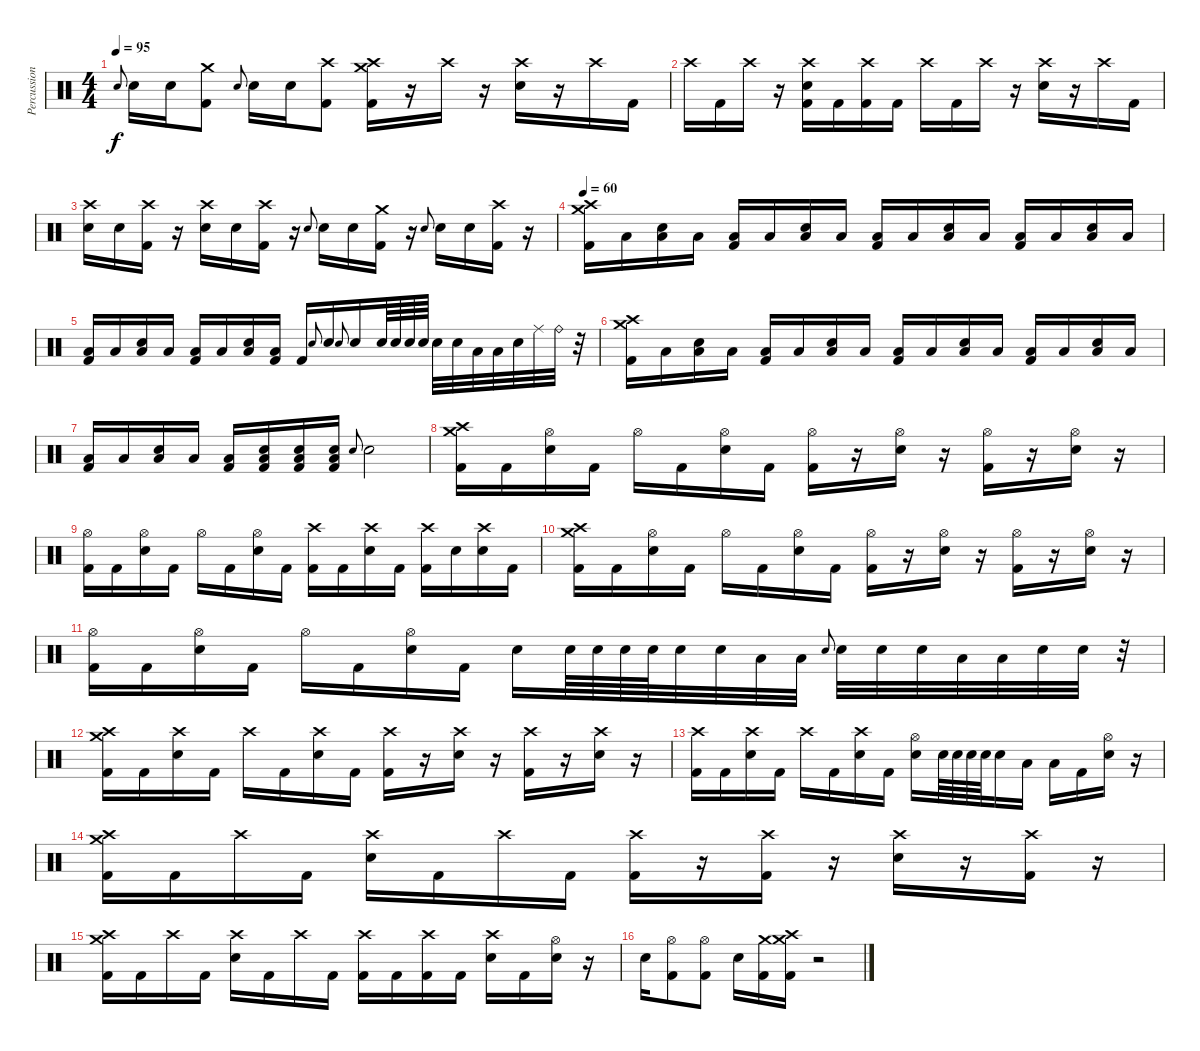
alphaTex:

\track ("Percussion" "Percussion") {instrument percussion}
\staff {score}
\articulation defaults
\ts (4 4)
\tempo 95
\clef neutral
\ks c "Electric Snare (hit)".8{gr onbeat dy f} "Electric Snare (hit)".16{volume 13} "Electric Snare (hit)".16
("Crash medium (hit)" "Kick (hit) 2").8 "Electric Snare (hit)".8{gr onbeat} "Electric Snare (hit)".16 "Electric Snare (hit)".16 ("Crash high (hit)" "Kick (hit) 2").8 ("Crash medium (hit)" "Crash high (hit)" "Kick (hit) 2").16 r.16 "Crash high (hit)".16 r.16 ("Crash high (hit)" "Electric Snare (hit)").16 r.16 "Crash high (hit)".16 "Kick (hit) 2".16 |
"Crash high (hit)".16 "Kick (hit) 2".16 "Crash high (hit)".16 r.16 ("Crash high (hit)" "Electric Snare (hit)" "Kick (hit) 2").16 "Kick (hit) 2".16 ("Crash high (hit)" "Kick (hit) 2").16 "Kick (hit) 2".16 "Crash high (hit)".16 "Kick (hit) 2".16 "Crash high (hit)".16 r.16 ("Crash high (hit)" "Electric Snare (hit)").16 r.16 "Crash high (hit)".16 "Kick (hit) 2".16 |
("Crash high (hit)" "Electric Snare (hit)").16 "Electric Snare (hit)".16 ("Crash high (hit)" "Kick (hit) 2").16 r.16 ("Crash high (hit)" "Electric Snare (hit)").16 "Electric Snare (hit)".16 ("Crash high (hit)" "Kick (hit) 2").16 r.16 "Electric Snare (hit)".8{gr onbeat} "Electric Snare (hit)".16 "Electric Snare (hit)".16 ("Crash medium (hit)" "Kick (hit) 2").16 r.16 "Electric Snare (hit)".8{gr onbeat} "Electric Snare (hit)".16 "Electric Snare (hit)".16 ("Crash high (hit)" "Kick (hit) 2").16 r.16 |
\tempo 60
("Crash medium (hit)" "Crash high (hit)" "Kick (hit) 2").16 "Low Floor Tom (hit)".16 ("Low Floor Tom (hit)" "Electric Snare (hit)").16 "Low Floor Tom (hit)".16 ("Low Floor Tom (hit)" "Kick (hit) 2").16 "Low Floor Tom (hit)".16 ("Low Floor Tom (hit)" "Electric Snare (hit)").16 "Low Floor Tom (hit)".16 ("Low Floor Tom (hit)" "Kick (hit) 2").16 "Low Floor Tom (hit)".16 ("Low Floor Tom (hit)" "Electric Snare (hit)").16 "Low Floor Tom (hit)".16 ("Low Floor Tom (hit)" "Kick (hit) 2").16 "Low Floor Tom (hit)".16 ("Low Floor Tom (hit)" "Electric Snare (hit)").16 "Low Floor Tom (hit)".16 |
("Low Floor Tom (hit)" "Kick (hit) 2").16 "Low Floor Tom (hit)".16 ("Low Floor Tom (hit)" "Electric Snare (hit)").16 "Low Floor Tom (hit)".16 ("Low Floor Tom (hit)" "Kick (hit) 2").16 "Low Floor Tom (hit)".16 ("Low Floor Tom (hit)" "Electric Snare (hit)").16 ("Low Floor Tom (hit)" "Kick (hit) 2").16 "Kick (hit) 2".16 "Electric Snare (hit)".8{gr onbeat} "Electric Snare (hit)".16 "Electric Snare (hit)".8{gr onbeat} "Electric Snare (hit)".16 "Electric Snare (hit)".64 "Electric Snare (hit)".64 "Electric Snare (hit)".64 "Electric Snare (hit)".64 "Electric Snare (hit)".32 "Electric Snare (hit)".32 "Low Tom (hit)".32 "Low Tom (hit)".32 "Electric Snare (hit)".32 "Ride (middle)".32 "Ride (bell)".32 r.32 |
("Crash medium (hit)" "Crash high (hit)" "Kick (hit) 2").16 "Low Floor Tom (hit)".16 ("Low Floor Tom (hit)" "Electric Snare (hit)").16 "Low Floor Tom (hit)".16 ("Low Floor Tom (hit)" "Kick (hit) 2").16 "Low Floor Tom (hit)".16 ("Low Floor Tom (hit)" "Electric Snare (hit)").16 "Low Floor Tom (hit)".16 ("Low Floor Tom (hit)" "Kick (hit) 2").16 "Low Floor Tom (hit)".16 ("Low Floor Tom (hit)" "Electric Snare (hit)").16 "Low Floor Tom (hit)".16 ("Low Floor Tom (hit)" "Kick (hit) 2").16 "Low Floor Tom (hit)".16 ("Low Floor Tom (hit)" "Electric Snare (hit)").16 "Low Floor Tom (hit)".16 |
("Low Floor Tom (hit)" "Kick (hit) 2").16 "Low Floor Tom (hit)".16 ("Low Floor Tom (hit)" "Electric Snare (hit)").16 "Low Floor Tom (hit)".16 ("Low Floor Tom (hit)" "Kick (hit) 2").16 ("Low Floor Tom (hit)" "Electric Snare (hit)" "Kick (hit) 2").16 ("Low Floor Tom (hit)" "Electric Snare (hit)" "Kick (hit) 2").16 ("Low Floor Tom (hit)" "Electric Snare (hit)" "Kick (hit) 2").16 "Electric Snare (hit)".8{gr onbeat} "Electric Snare (hit)".2 |
("Crash medium (hit)" "Crash high (hit)" "Kick (hit) 2").16 "Kick (hit) 2".16 ("Hi-Hat (open)" "Electric Snare (hit)").16 "Kick (hit) 2".16 "Hi-Hat (open)".16 "Kick (hit) 2".16 ("Hi-Hat (open)" "Electric Snare (hit)").16 "Kick (hit) 2".16 ("Hi-Hat (open)" "Kick (hit) 2").16 r.16 ("Hi-Hat (open)" "Electric Snare (hit)").16 r.16 ("Hi-Hat (open)" "Kick (hit) 2").16 r.16 ("Hi-Hat (open)" "Electric Snare (hit)").16 r.16 |
("Hi-Hat (open)" "Kick (hit) 2").16 "Kick (hit) 2".16 ("Hi-Hat (open)" "Electric Snare (hit)").16 "Kick (hit) 2".16 "Hi-Hat (open)".16 "Kick (hit) 2".16 ("Hi-Hat (open)" "Electric Snare (hit)").16 "Kick (hit) 2".16 ("Crash high (hit)" "Kick (hit) 2").16 "Kick (hit) 2".16 ("Crash high (hit)" "Electric Snare (hit)").16 "Kick (hit) 2".16 ("Crash high (hit)" "Kick (hit) 2").16 "Electric Snare (hit)".16 ("Crash high (hit)" "Electric Snare (hit)").16 "Kick (hit) 2".16 |
("Crash medium (hit)" "Crash high (hit)" "Kick (hit) 2").16 "Kick (hit) 2".16 ("Hi-Hat (open)" "Electric Snare (hit)").16 "Kick (hit) 2".16 "Hi-Hat (open)".16 "Kick (hit) 2".16 ("Hi-Hat (open)" "Electric Snare (hit)").16 "Kick (hit) 2".16 ("Hi-Hat (open)" "Kick (hit) 2").16 r.16 ("Hi-Hat (open)" "Electric Snare (hit)").16 r.16 ("Hi-Hat (open)" "Kick (hit) 2").16 r.16 ("Hi-Hat (open)" "Electric Snare (hit)").16 r.16 |
("Hi-Hat (open)" "Kick (hit) 2").16 "Kick (hit) 2".16 ("Hi-Hat (open)" "Electric Snare (hit)").16 "Kick (hit) 2".16 "Hi-Hat (open)".16 "Kick (hit) 2".16 ("Hi-Hat (open)" "Electric Snare (hit)").16 "Kick (hit) 2".16 "Electric Snare (hit)".16 "Electric Snare (hit)".64 "Electric Snare (hit)".64 "Electric Snare (hit)".64 "Electric Snare (hit)".64 "Electric Snare (hit)".32 "Electric Snare (hit)".32 "Low Tom (hit)".32 "Low Tom (hit)".32 "Electric Snare (hit)".8{gr onbeat} "Electric Snare (hit)".32 "Electric Snare (hit)".32 "Electric Snare (hit)".32 "Low Tom (hit)".32 "Low Tom (hit)".32 "Electric Snare (hit)".32 "Electric Snare (hit)".32 r.32 |
("Crash medium (hit)" "Crash high (hit)" "Kick (hit) 2").16 "Kick (hit) 2".16 ("Crash high (hit)" "Electric Snare (hit)").16 "Kick (hit) 2".16 "Crash high (hit)".16 "Kick (hit) 2".16 ("Crash high (hit)" "Electric Snare (hit)").16 "Kick (hit) 2".16 ("Crash high (hit)" "Kick (hit) 2").16 r.16 ("Crash high (hit)" "Electric Snare (hit)").16 r.16 ("Crash high (hit)" "Kick (hit) 2").16 r.16 ("Crash high (hit)" "Electric Snare (hit)").16 r.16 |
("Crash high (hit)" "Kick (hit) 2").16 "Kick (hit) 2".16 ("Crash high (hit)" "Electric Snare (hit)").16 "Kick (hit) 2".16 "Crash high (hit)".16 "Kick (hit) 2".16 ("Crash high (hit)" "Electric Snare (hit)").16 "Kick (hit) 2".16 ("Hi-Hat (open)" "Electric Snare (hit)").16 "Electric Snare (hit)".64 "Electric Snare (hit)".64 "Electric Snare (hit)".64 "Electric Snare (hit)".64 "Electric Snare (hit)".16 "Low Tom (hit)".16 "Low Floor Tom (hit)".16 "Kick (hit) 2".16 ("Hi-Hat (open)" "Electric Snare (hit)").16 r.16 |
("Crash medium (hit)" "Crash high (hit)" "Kick (hit) 2").16 "Kick (hit) 2".16 "Crash high (hit)".16 "Kick (hit) 2".16 ("Crash high (hit)" "Electric Snare (hit)").16 "Kick (hit) 2".16 "Crash high (hit)".16 "Kick (hit) 2".16 ("Crash high (hit)" "Kick (hit) 2").16 r.16 ("Crash high (hit)" "Kick (hit) 2").16 r.16 ("Crash high (hit)" "Electric Snare (hit)").16 r.16 ("Crash high (hit)" "Kick (hit) 2").16 r.16 |
("Crash medium (hit)" "Crash high (hit)" "Kick (hit) 2").16 "Kick (hit) 2".16 "Crash high (hit)".16 "Kick (hit) 2".16 ("Crash high (hit)" "Electric Snare (hit)").16 "Kick (hit) 2".16 "Crash high (hit)".16 "Kick (hit) 2".16 ("Crash high (hit)" "Kick (hit) 2").16 "Kick (hit) 2".16 ("Crash high (hit)" "Kick (hit) 2").16 "Kick (hit) 2".16 ("Crash high (hit)" "Electric Snare (hit)").16 "Kick (hit) 2".16 ("Hi-Hat (open)" "Electric Snare (hit)").16 r.16 |
"Electric Snare (hit)".16 ("Hi-Hat (open)" "Kick (hit) 2").8 ("Hi-Hat (open)" "Kick (hit) 2").8 "Electric Snare (hit)".16 ("Crash medium (hit)" "Kick (hit) 2").16 ("Crash medium (hit)" "Crash high (hit)" "Kick (hit) 2").16 r.2
